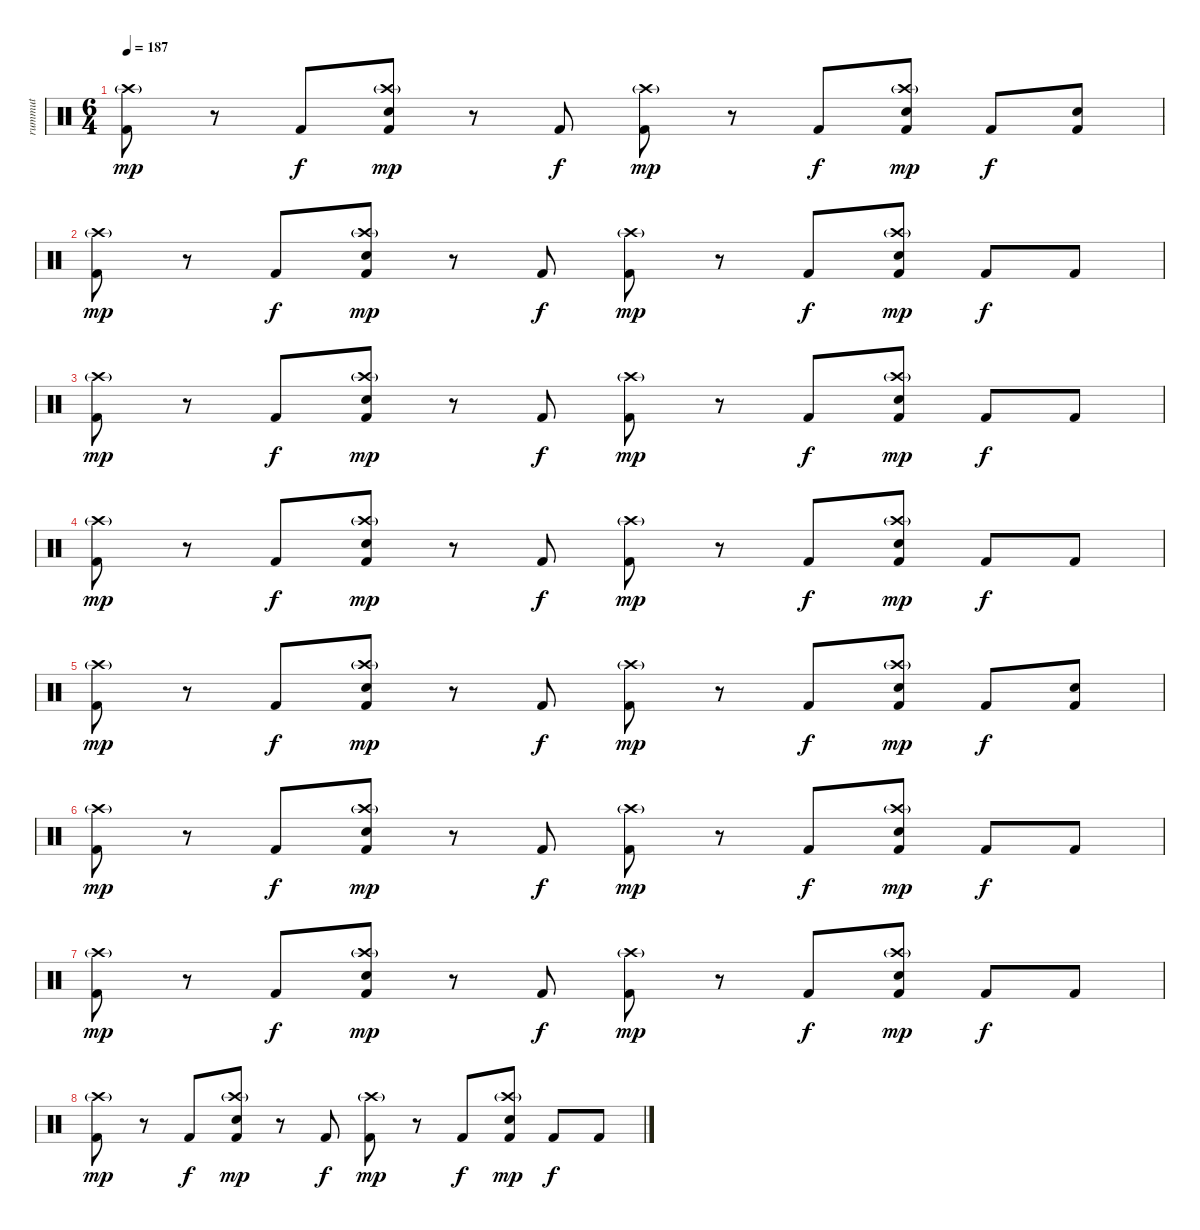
\track ("rummut" "rummut") {instrument percussion}
\staff {score}
\articulation defaults
\ts (6 4)
\tempo 187
\clef neutral
\ks c
("Kick (hit) 2" "Crash high (hit)"{g}).8{dy mp} r.8 "Kick (hit) 2".8{dy f} ("Kick (hit) 2" "Crash high (hit)"{g} "Snare (hit) 2").8{dy mp} r.8 "Kick (hit) 2".8{dy f} ("Kick (hit) 2" "Crash high (hit)"{g}).8{dy mp} r.8 "Kick (hit) 2".8{dy f} ("Kick (hit) 2" "Crash high (hit)"{g} "Snare (hit) 2").8{dy mp} "Kick (hit) 2".8{dy f} ("Kick (hit) 2" "Snare (hit) 2").8 |
("Kick (hit) 2" "Crash high (hit)"{g}).8{dy mp} r.8 "Kick (hit) 2".8{dy f} ("Kick (hit) 2" "Crash high (hit)"{g} "Snare (hit) 2").8{dy mp} r.8 "Kick (hit) 2".8{dy f} ("Kick (hit) 2" "Crash high (hit)"{g}).8{dy mp} r.8 "Kick (hit) 2".8{dy f} ("Kick (hit) 2" "Crash high (hit)"{g} "Snare (hit) 2").8{dy mp} "Kick (hit) 2".8{dy f} "Kick (hit) 2".8 |
("Kick (hit) 2" "Crash high (hit)"{g}).8{dy mp} r.8 "Kick (hit) 2".8{dy f} ("Kick (hit) 2" "Crash high (hit)"{g} "Snare (hit) 2").8{dy mp} r.8 "Kick (hit) 2".8{dy f} ("Kick (hit) 2" "Crash high (hit)"{g}).8{dy mp} r.8 "Kick (hit) 2".8{dy f} ("Kick (hit) 2" "Crash high (hit)"{g} "Snare (hit) 2").8{dy mp} "Kick (hit) 2".8{dy f} "Kick (hit) 2".8 |
("Kick (hit) 2" "Crash high (hit)"{g}).8{dy mp} r.8 "Kick (hit) 2".8{dy f} ("Kick (hit) 2" "Crash high (hit)"{g} "Snare (hit) 2").8{dy mp} r.8 "Kick (hit) 2".8{dy f} ("Kick (hit) 2" "Crash high (hit)"{g}).8{dy mp} r.8 "Kick (hit) 2".8{dy f} ("Kick (hit) 2" "Crash high (hit)"{g} "Snare (hit) 2").8{dy mp} "Kick (hit) 2".8{dy f} "Kick (hit) 2".8 |
("Kick (hit) 2" "Crash high (hit)"{g}).8{dy mp} r.8 "Kick (hit) 2".8{dy f} ("Kick (hit) 2" "Crash high (hit)"{g} "Snare (hit) 2").8{dy mp} r.8 "Kick (hit) 2".8{dy f} ("Kick (hit) 2" "Crash high (hit)"{g}).8{dy mp} r.8 "Kick (hit) 2".8{dy f} ("Kick (hit) 2" "Crash high (hit)"{g} "Snare (hit) 2").8{dy mp} "Kick (hit) 2".8{dy f} ("Kick (hit) 2" "Snare (hit) 2").8 |
("Kick (hit) 2" "Crash high (hit)"{g}).8{dy mp} r.8 "Kick (hit) 2".8{dy f} ("Kick (hit) 2" "Crash high (hit)"{g} "Snare (hit) 2").8{dy mp} r.8 "Kick (hit) 2".8{dy f} ("Kick (hit) 2" "Crash high (hit)"{g}).8{dy mp} r.8 "Kick (hit) 2".8{dy f} ("Kick (hit) 2" "Crash high (hit)"{g} "Snare (hit) 2").8{dy mp} "Kick (hit) 2".8{dy f} "Kick (hit) 2".8 |
("Kick (hit) 2" "Crash high (hit)"{g}).8{dy mp} r.8 "Kick (hit) 2".8{dy f} ("Kick (hit) 2" "Crash high (hit)"{g} "Snare (hit) 2").8{dy mp} r.8 "Kick (hit) 2".8{dy f} ("Kick (hit) 2" "Crash high (hit)"{g}).8{dy mp} r.8 "Kick (hit) 2".8{dy f} ("Kick (hit) 2" "Crash high (hit)"{g} "Snare (hit) 2").8{dy mp} "Kick (hit) 2".8{dy f} "Kick (hit) 2".8 |
("Kick (hit) 2" "Crash high (hit)"{g}).8{dy mp} r.8 "Kick (hit) 2".8{dy f} ("Kick (hit) 2" "Crash high (hit)"{g} "Snare (hit) 2").8{dy mp} r.8 "Kick (hit) 2".8{dy f} ("Kick (hit) 2" "Crash high (hit)"{g}).8{dy mp} r.8 "Kick (hit) 2".8{dy f} ("Kick (hit) 2" "Crash high (hit)"{g} "Snare (hit) 2").8{dy mp} "Kick (hit) 2".8{dy f} "Kick (hit) 2".8
